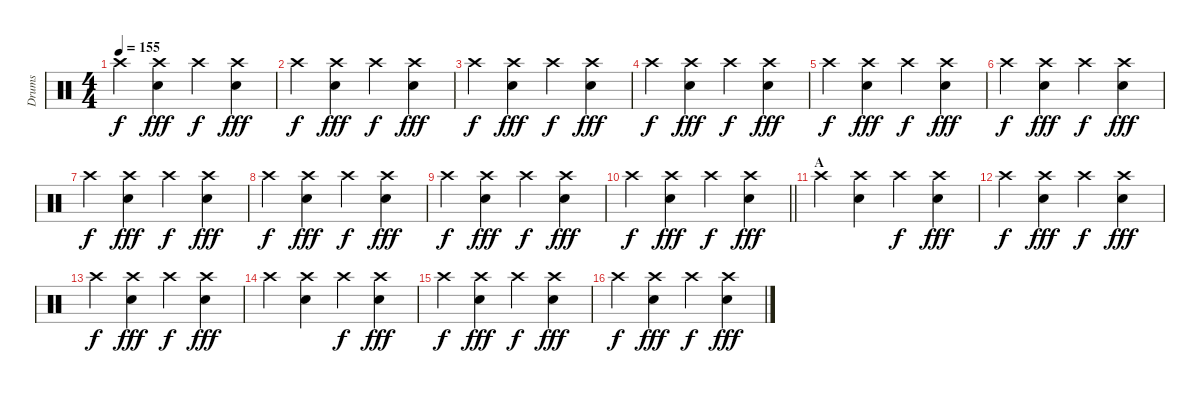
\track ("Drums" "Drums") {instrument percussion}
\staff {score}
\articulation defaults
\ts (4 4)
\tempo 155
\clef neutral
\ks c "Crash high (hit)".4{dy f}
("Crash high (hit)" "Electric Snare (hit)").4{dy fff} "Crash high (hit)".4{dy f} ("Crash high (hit)" "Electric Snare (hit)").4{dy fff} |
"Crash high (hit)".4{dy f} ("Crash high (hit)" "Electric Snare (hit)").4{dy fff} "Crash high (hit)".4{dy f} ("Crash high (hit)" "Electric Snare (hit)").4{dy fff} |
"Crash high (hit)".4{dy f} ("Crash high (hit)" "Electric Snare (hit)").4{dy fff} "Crash high (hit)".4{dy f} ("Crash high (hit)" "Electric Snare (hit)").4{dy fff} |
"Crash high (hit)".4{dy f} ("Crash high (hit)" "Electric Snare (hit)").4{dy fff} "Crash high (hit)".4{dy f} ("Crash high (hit)" "Electric Snare (hit)").4{dy fff} |
"Crash high (hit)".4{dy f} ("Crash high (hit)" "Electric Snare (hit)").4{dy fff} "Crash high (hit)".4{dy f} ("Crash high (hit)" "Electric Snare (hit)").4{dy fff} |
"Crash high (hit)".4{dy f} ("Crash high (hit)" "Electric Snare (hit)").4{dy fff} "Crash high (hit)".4{dy f} ("Crash high (hit)" "Electric Snare (hit)").4{dy fff} |
"Crash high (hit)".4{dy f} ("Crash high (hit)" "Electric Snare (hit)").4{dy fff} "Crash high (hit)".4{dy f} ("Crash high (hit)" "Electric Snare (hit)").4{dy fff} |
"Crash high (hit)".4{dy f} ("Crash high (hit)" "Electric Snare (hit)").4{dy fff} "Crash high (hit)".4{dy f} ("Crash high (hit)" "Electric Snare (hit)").4{dy fff} |
"Crash high (hit)".4{dy f} ("Crash high (hit)" "Electric Snare (hit)").4{dy fff} "Crash high (hit)".4{dy f} ("Crash high (hit)" "Electric Snare (hit)").4{dy fff} |
\barLineRight lightlight "Crash high (hit)".4{dy f}
("Crash high (hit)" "Electric Snare (hit)").4{dy fff} "Crash high (hit)".4{dy f} ("Crash high (hit)" "Electric Snare (hit)").4{dy fff} |
\section ("" "A")
"Crash high (hit)".4 ("Crash high (hit)" "Electric Snare (hit)").4 "Crash high (hit)".4{dy f} ("Crash high (hit)" "Electric Snare (hit)").4{dy fff} |
"Crash high (hit)".4{dy f} ("Crash high (hit)" "Electric Snare (hit)").4{dy fff} "Crash high (hit)".4{dy f} ("Crash high (hit)" "Electric Snare (hit)").4{dy fff} |
"Crash high (hit)".4{dy f} ("Crash high (hit)" "Electric Snare (hit)").4{dy fff} "Crash high (hit)".4{dy f} ("Crash high (hit)" "Electric Snare (hit)").4{dy fff} |
"Crash high (hit)".4 ("Crash high (hit)" "Electric Snare (hit)").4 "Crash high (hit)".4{dy f} ("Crash high (hit)" "Electric Snare (hit)").4{dy fff} |
"Crash high (hit)".4{dy f} ("Crash high (hit)" "Electric Snare (hit)").4{dy fff} "Crash high (hit)".4{dy f} ("Crash high (hit)" "Electric Snare (hit)").4{dy fff} |
"Crash high (hit)".4{dy f} ("Crash high (hit)" "Electric Snare (hit)").4{dy fff} "Crash high (hit)".4{dy f} ("Crash high (hit)" "Electric Snare (hit)").4{dy fff}
